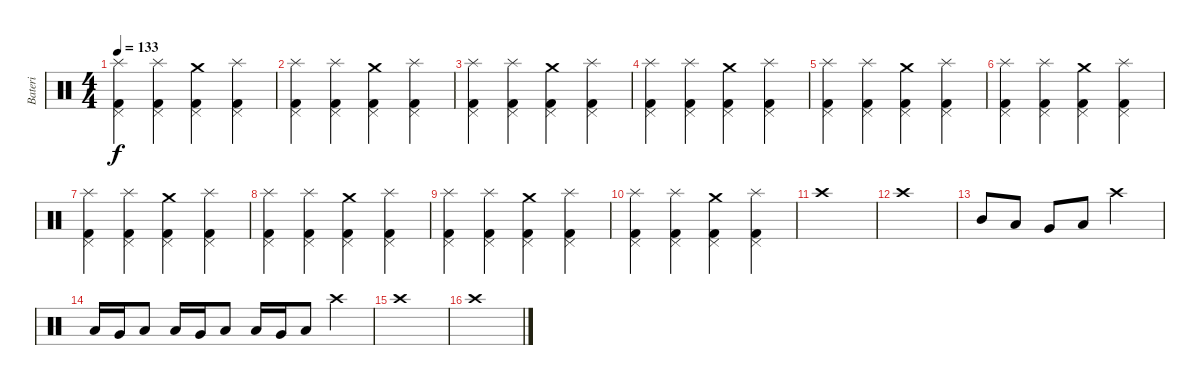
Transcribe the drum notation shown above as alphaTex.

\track ("Bateri" "Bateri") {instrument percussion}
\staff {score}
\articulation defaults
\ts (4 4)
\tempo 133
\clef neutral
\ks c
("Splash (hit)" "Pedal Hi-Hat (hit)" "Kick (hit) 2").4{dy f} ("Splash (hit)" "Pedal Hi-Hat (hit)" "Kick (hit) 2").4 ("Crash medium (hit)" "Pedal Hi-Hat (hit)" "Kick (hit) 2").4 ("Splash (hit)" "Pedal Hi-Hat (hit)" "Kick (hit) 2").4 |
("Splash (hit)" "Pedal Hi-Hat (hit)" "Kick (hit) 2").4 ("Splash (hit)" "Pedal Hi-Hat (hit)" "Kick (hit) 2").4 ("Crash medium (hit)" "Pedal Hi-Hat (hit)" "Kick (hit) 2").4 ("Splash (hit)" "Pedal Hi-Hat (hit)" "Kick (hit) 2").4 |
("Splash (hit)" "Pedal Hi-Hat (hit)" "Kick (hit) 2").4 ("Splash (hit)" "Pedal Hi-Hat (hit)" "Kick (hit) 2").4 ("Crash medium (hit)" "Pedal Hi-Hat (hit)" "Kick (hit) 2").4 ("Splash (hit)" "Pedal Hi-Hat (hit)" "Kick (hit) 2").4 |
("Splash (hit)" "Pedal Hi-Hat (hit)" "Kick (hit) 2").4 ("Splash (hit)" "Pedal Hi-Hat (hit)" "Kick (hit) 2").4 ("Crash medium (hit)" "Pedal Hi-Hat (hit)" "Kick (hit) 2").4 ("Splash (hit)" "Pedal Hi-Hat (hit)" "Kick (hit) 2").4 |
("Splash (hit)" "Pedal Hi-Hat (hit)" "Kick (hit) 2").4 ("Splash (hit)" "Pedal Hi-Hat (hit)" "Kick (hit) 2").4 ("Crash medium (hit)" "Pedal Hi-Hat (hit)" "Kick (hit) 2").4 ("Splash (hit)" "Pedal Hi-Hat (hit)" "Kick (hit) 2").4 |
("Splash (hit)" "Pedal Hi-Hat (hit)" "Kick (hit) 2").4 ("Splash (hit)" "Pedal Hi-Hat (hit)" "Kick (hit) 2").4 ("Crash medium (hit)" "Pedal Hi-Hat (hit)" "Kick (hit) 2").4 ("Splash (hit)" "Pedal Hi-Hat (hit)" "Kick (hit) 2").4 |
("Splash (hit)" "Pedal Hi-Hat (hit)" "Kick (hit) 2").4 ("Splash (hit)" "Pedal Hi-Hat (hit)" "Kick (hit) 2").4 ("Crash medium (hit)" "Pedal Hi-Hat (hit)" "Kick (hit) 2").4 ("Splash (hit)" "Pedal Hi-Hat (hit)" "Kick (hit) 2").4 |
("Splash (hit)" "Pedal Hi-Hat (hit)" "Kick (hit) 2").4 ("Splash (hit)" "Pedal Hi-Hat (hit)" "Kick (hit) 2").4 ("Crash medium (hit)" "Pedal Hi-Hat (hit)" "Kick (hit) 2").4 ("Splash (hit)" "Pedal Hi-Hat (hit)" "Kick (hit) 2").4 |
("Splash (hit)" "Pedal Hi-Hat (hit)" "Kick (hit) 2").4 ("Splash (hit)" "Pedal Hi-Hat (hit)" "Kick (hit) 2").4 ("Crash medium (hit)" "Pedal Hi-Hat (hit)" "Kick (hit) 2").4 ("Splash (hit)" "Pedal Hi-Hat (hit)" "Kick (hit) 2").4 |
("Splash (hit)" "Pedal Hi-Hat (hit)" "Kick (hit) 2").4 ("Splash (hit)" "Pedal Hi-Hat (hit)" "Kick (hit) 2").4 ("Crash medium (hit)" "Pedal Hi-Hat (hit)" "Kick (hit) 2").4 ("Splash (hit)" "Pedal Hi-Hat (hit)" "Kick (hit) 2").4 |
"Crash high (hit)".1 |
"Crash high (hit)".1 |
"Mid Tom (hit)".8 "Low Tom (hit)".8 "Very Low Tom (hit)".8 "Low Floor Tom (hit)".8 "Crash high (hit)".2 |
"Low Tom (hit)".16 "Very Low Tom (hit)".16 "Low Floor Tom (hit)".8 "Low Tom (hit)".16 "Very Low Tom (hit)".16 "Low Floor Tom (hit)".8 "Low Tom (hit)".16 "Very Low Tom (hit)".16 "Low Floor Tom (hit)".8 "Crash high (hit)".4 |
"Crash high (hit)".1 |
"Crash high (hit)".1
